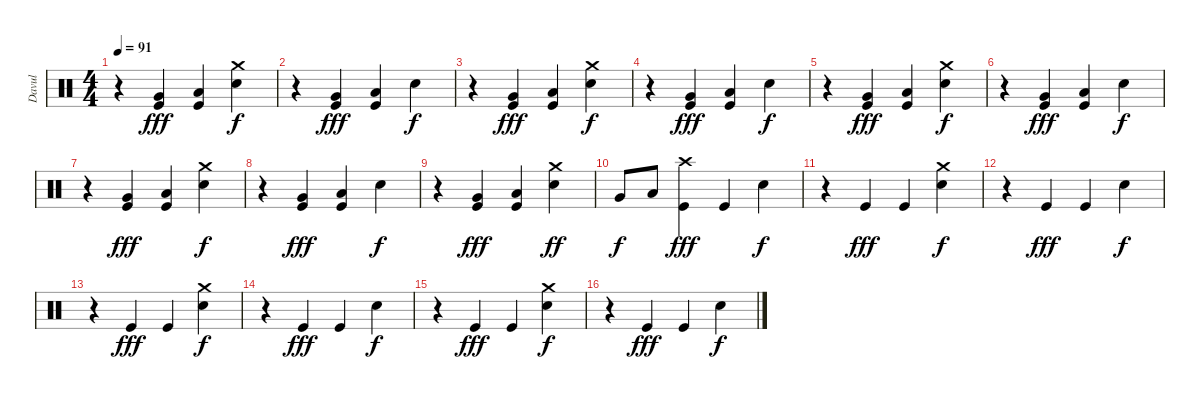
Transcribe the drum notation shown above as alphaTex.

\track ("Davul" "Davul") {instrument percussion}
\staff {score}
\articulation defaults
\ts (4 4)
\tempo 91
\clef neutral
\ks c
r.4{dy f} ("Very Low Tom (hit)" "Kick (hit)").4{dy fff} ("Low Floor Tom (hit)" "Kick (hit)").4 ("Crash medium (hit)" "Snare (hit) 2").4{dy f} |
r.4 ("Very Low Tom (hit)" "Kick (hit)").4{dy fff} ("Low Floor Tom (hit)" "Kick (hit)").4 "Snare (hit) 2".4{dy f} |
r.4 ("Very Low Tom (hit)" "Kick (hit)").4{dy fff} ("Low Floor Tom (hit)" "Kick (hit)").4 ("Crash medium (hit)" "Snare (hit) 2").4{dy f} |
r.4 ("Very Low Tom (hit)" "Kick (hit)").4{dy fff} ("Low Floor Tom (hit)" "Kick (hit)").4 "Snare (hit) 2".4{dy f} |
r.4 ("Very Low Tom (hit)" "Kick (hit)").4{dy fff} ("Low Floor Tom (hit)" "Kick (hit)").4 ("Crash medium (hit)" "Snare (hit) 2").4{dy f} |
r.4 ("Very Low Tom (hit)" "Kick (hit)").4{dy fff} ("Low Floor Tom (hit)" "Kick (hit)").4 "Snare (hit) 2".4{dy f} |
r.4 ("Very Low Tom (hit)" "Kick (hit)").4{dy fff} ("Low Floor Tom (hit)" "Kick (hit)").4 ("Crash medium (hit)" "Snare (hit) 2").4{dy f} |
r.4 ("Very Low Tom (hit)" "Kick (hit)").4{dy fff} ("Low Floor Tom (hit)" "Kick (hit)").4 "Snare (hit) 2".4{dy f} |
r.4 ("Very Low Tom (hit)" "Kick (hit)").4{dy fff} ("Low Floor Tom (hit)" "Kick (hit)").4 ("Crash medium (hit)" "Snare (hit) 2").4{dy ff} |
"Very Low Tom (hit)".8{dy f} "Low Floor Tom (hit)".8 ("Crash high (hit)" "Kick (hit)").4{dy fff} "Kick (hit)".4 "Snare (hit) 2".4{dy f} |
r.4 "Kick (hit)".4{dy fff} "Kick (hit)".4 ("Crash medium (hit)" "Snare (hit) 2").4{dy f} |
r.4 "Kick (hit)".4{dy fff} "Kick (hit)".4 "Snare (hit) 2".4{dy f} |
r.4 "Kick (hit)".4{dy fff} "Kick (hit)".4 ("Crash medium (hit)" "Snare (hit) 2").4{dy f} |
r.4 "Kick (hit)".4{dy fff} "Kick (hit)".4 "Snare (hit) 2".4{dy f} |
r.4 "Kick (hit)".4{dy fff} "Kick (hit)".4 ("Crash medium (hit)" "Snare (hit) 2").4{dy f} |
r.4 "Kick (hit)".4{dy fff} "Kick (hit)".4 "Snare (hit) 2".4{dy f}
